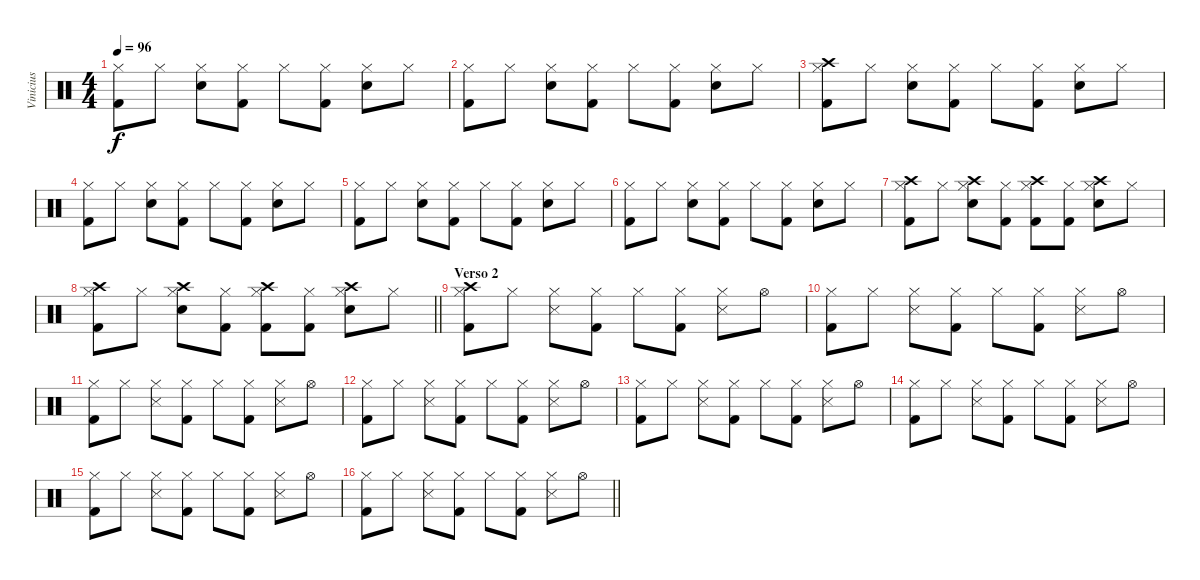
\track ("Vinicius" "Vinicius") {instrument percussion}
\staff {score}
\articulation defaults
\ts (4 4)
\tempo 96
\clef neutral
\ks c
("Kick (hit) 2" "Hi-Hat (closed)").8{dy f} "Hi-Hat (closed)".8 ("Snare (hit) 2" "Hi-Hat (closed)").8 ("Kick (hit) 2" "Hi-Hat (closed)").8 "Hi-Hat (closed)".8 ("Kick (hit) 2" "Hi-Hat (closed)").8 ("Snare (hit) 2" "Hi-Hat (closed)").8 "Hi-Hat (closed)".8 |
("Kick (hit) 2" "Hi-Hat (closed)").8 "Hi-Hat (closed)".8 ("Snare (hit) 2" "Hi-Hat (closed)").8 ("Kick (hit) 2" "Hi-Hat (closed)").8 "Hi-Hat (closed)".8 ("Kick (hit) 2" "Hi-Hat (closed)").8 ("Snare (hit) 2" "Hi-Hat (closed)").8 "Hi-Hat (closed)".8 |
("Kick (hit) 2" "Crash high (hit)" "Hi-Hat (closed)").8 "Hi-Hat (closed)".8 ("Snare (hit) 2" "Hi-Hat (closed)").8 ("Kick (hit) 2" "Hi-Hat (closed)").8 "Hi-Hat (closed)".8 ("Kick (hit) 2" "Hi-Hat (closed)").8 ("Snare (hit) 2" "Hi-Hat (closed)").8 "Hi-Hat (closed)".8 |
("Kick (hit) 2" "Hi-Hat (closed)").8 "Hi-Hat (closed)".8 ("Snare (hit) 2" "Hi-Hat (closed)").8 ("Kick (hit) 2" "Hi-Hat (closed)").8 "Hi-Hat (closed)".8 ("Kick (hit) 2" "Hi-Hat (closed)").8 ("Snare (hit) 2" "Hi-Hat (closed)").8 "Hi-Hat (closed)".8 |
("Kick (hit) 2" "Hi-Hat (closed)").8 "Hi-Hat (closed)".8 ("Snare (hit) 2" "Hi-Hat (closed)").8 ("Kick (hit) 2" "Hi-Hat (closed)").8 "Hi-Hat (closed)".8 ("Kick (hit) 2" "Hi-Hat (closed)").8 ("Snare (hit) 2" "Hi-Hat (closed)").8 "Hi-Hat (closed)".8 |
("Kick (hit) 2" "Hi-Hat (closed)").8 "Hi-Hat (closed)".8 ("Snare (hit) 2" "Hi-Hat (closed)").8 ("Kick (hit) 2" "Hi-Hat (closed)").8 "Hi-Hat (closed)".8 ("Kick (hit) 2" "Hi-Hat (closed)").8 ("Snare (hit) 2" "Hi-Hat (closed)").8 "Hi-Hat (closed)".8 |
("Kick (hit) 2" "Crash high (hit)" "Hi-Hat (closed)").8 "Hi-Hat (closed)".8 ("Snare (hit) 2" "Crash high (hit)" "Hi-Hat (closed)").8 ("Kick (hit) 2" "Hi-Hat (closed)").8 ("Kick (hit) 2" "Crash high (hit)" "Hi-Hat (closed)").8 ("Kick (hit) 2" "Hi-Hat (closed)").8 ("Snare (hit) 2" "Crash high (hit)" "Hi-Hat (closed)").8 "Hi-Hat (closed)".8 |
\barLineRight lightlight
("Kick (hit) 2" "Crash high (hit)" "Hi-Hat (closed)").8 "Hi-Hat (closed)".8 ("Snare (hit) 2" "Crash high (hit)" "Hi-Hat (closed)").8 ("Kick (hit) 2" "Hi-Hat (closed)").8 ("Kick (hit) 2" "Crash high (hit)" "Hi-Hat (closed)").8 ("Kick (hit) 2" "Hi-Hat (closed)").8 ("Snare (hit) 2" "Crash high (hit)" "Hi-Hat (closed)").8 "Hi-Hat (closed)".8 |
\section ("" "Verso 2")
("Kick (hit) 2" "Crash high (hit)" "Hi-Hat (closed)").8 "Hi-Hat (closed)".8 ("Snare (side stick) 3" "Hi-Hat (closed)").8 ("Kick (hit) 2" "Hi-Hat (closed)").8 "Hi-Hat (closed)".8 ("Kick (hit) 2" "Hi-Hat (closed)").8 ("Snare (side stick) 3" "Hi-Hat (closed)").8 "Hi-Hat (open)".8 |
("Kick (hit) 2" "Hi-Hat (closed)").8 "Hi-Hat (closed)".8 ("Snare (side stick) 3" "Hi-Hat (closed)").8 ("Kick (hit) 2" "Hi-Hat (closed)").8 "Hi-Hat (closed)".8 ("Kick (hit) 2" "Hi-Hat (closed)").8 ("Snare (side stick) 3" "Hi-Hat (closed)").8 "Hi-Hat (open)".8 |
("Kick (hit) 2" "Hi-Hat (closed)").8 "Hi-Hat (closed)".8 ("Snare (side stick) 3" "Hi-Hat (closed)").8 ("Kick (hit) 2" "Hi-Hat (closed)").8 "Hi-Hat (closed)".8 ("Kick (hit) 2" "Hi-Hat (closed)").8 ("Snare (side stick) 3" "Hi-Hat (closed)").8 "Hi-Hat (open)".8 |
("Kick (hit) 2" "Hi-Hat (closed)").8 "Hi-Hat (closed)".8 ("Snare (side stick) 3" "Hi-Hat (closed)").8 ("Kick (hit) 2" "Hi-Hat (closed)").8 "Hi-Hat (closed)".8 ("Kick (hit) 2" "Hi-Hat (closed)").8 ("Snare (side stick) 3" "Hi-Hat (closed)").8 "Hi-Hat (open)".8 |
("Kick (hit) 2" "Hi-Hat (closed)").8 "Hi-Hat (closed)".8 ("Snare (side stick) 3" "Hi-Hat (closed)").8 ("Kick (hit) 2" "Hi-Hat (closed)").8 "Hi-Hat (closed)".8 ("Kick (hit) 2" "Hi-Hat (closed)").8 ("Snare (side stick) 3" "Hi-Hat (closed)").8 "Hi-Hat (open)".8 |
("Kick (hit) 2" "Hi-Hat (closed)").8 "Hi-Hat (closed)".8 ("Snare (side stick) 3" "Hi-Hat (closed)").8 ("Kick (hit) 2" "Hi-Hat (closed)").8 "Hi-Hat (closed)".8 ("Kick (hit) 2" "Hi-Hat (closed)").8 ("Snare (side stick) 3" "Hi-Hat (closed)").8 "Hi-Hat (open)".8 |
("Kick (hit) 2" "Hi-Hat (closed)").8 "Hi-Hat (closed)".8 ("Snare (side stick) 3" "Hi-Hat (closed)").8 ("Kick (hit) 2" "Hi-Hat (closed)").8 "Hi-Hat (closed)".8 ("Kick (hit) 2" "Hi-Hat (closed)").8 ("Snare (side stick) 3" "Hi-Hat (closed)").8 "Hi-Hat (open)".8 |
\barLineRight lightlight
("Kick (hit) 2" "Hi-Hat (closed)").8 "Hi-Hat (closed)".8 ("Snare (side stick) 3" "Hi-Hat (closed)").8 ("Kick (hit) 2" "Hi-Hat (closed)").8 "Hi-Hat (closed)".8 ("Kick (hit) 2" "Hi-Hat (closed)").8 ("Snare (side stick) 3" "Hi-Hat (closed)").8 "Hi-Hat (open)".8
